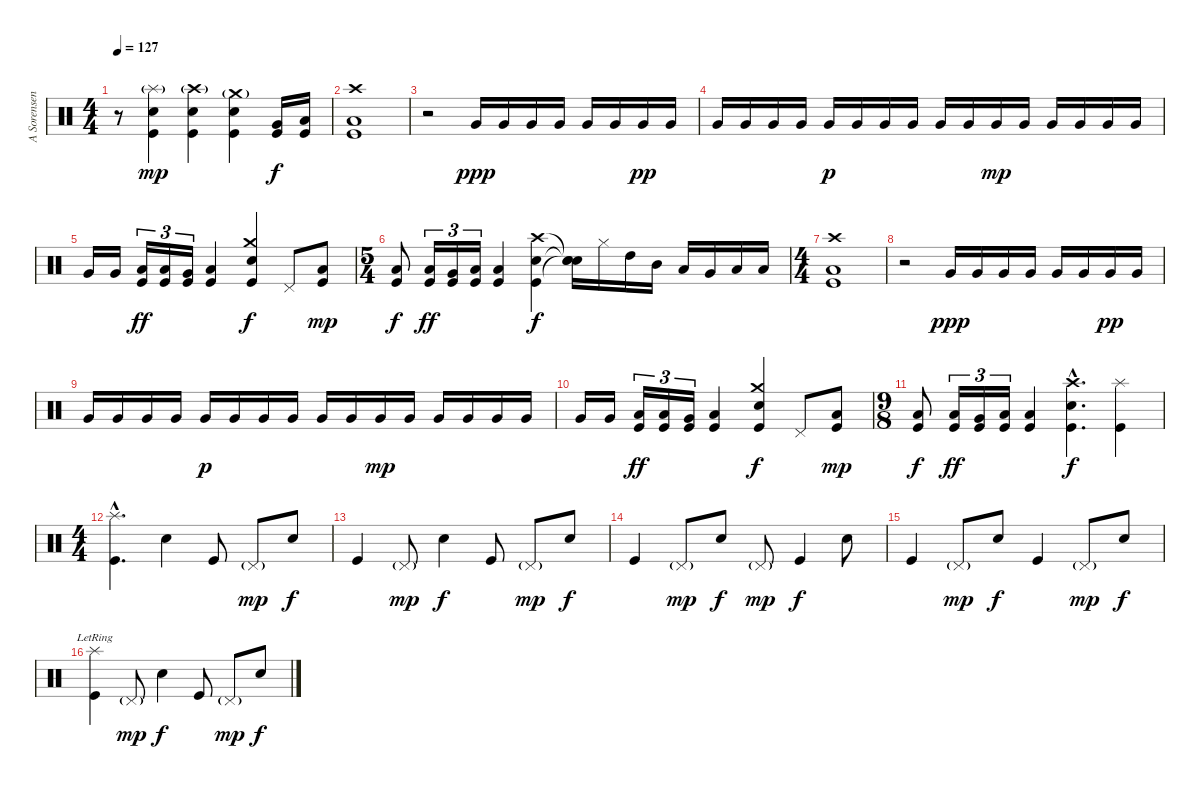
\track ("A Sorensen" "A Sorensen") {instrument percussion}
\staff {score}
\articulation defaults
\ts (4 4)
\tempo 127
\clef neutral
\ks c
r.8{dy f} ("Splash (hit)"{g} "Electric Snare (hit)" "Kick (hit)").4{dy mp} ("Crash high (hit)"{g} "Electric Snare (hit)" "Kick (hit)").4 ("Crash medium (hit)"{g} "Electric Snare (hit)" "Kick (hit)").4 ("Very Low Tom (hit)" "Kick (hit)").16{dy f} ("Low Floor Tom (hit)" "Kick (hit)").16 |
("Crash high (hit)" "Low Floor Tom (hit)" "Kick (hit)").1 |
r.2 "Very Low Tom (hit)".16{dy ppp} "Very Low Tom (hit)".16 "Very Low Tom (hit)".16 "Very Low Tom (hit)".16 "Very Low Tom (hit)".16 "Very Low Tom (hit)".16 "Very Low Tom (hit)".16{dy pp} "Very Low Tom (hit)".16 |
"Very Low Tom (hit)".16 "Very Low Tom (hit)".16 "Very Low Tom (hit)".16 "Very Low Tom (hit)".16 "Very Low Tom (hit)".16{dy p} "Very Low Tom (hit)".16 "Very Low Tom (hit)".16 "Very Low Tom (hit)".16 "Very Low Tom (hit)".16 "Very Low Tom (hit)".16 "Very Low Tom (hit)".16{dy mp} "Very Low Tom (hit)".16 "Very Low Tom (hit)".16 "Very Low Tom (hit)".16 "Very Low Tom (hit)".16 "Very Low Tom (hit)".16 |
"Very Low Tom (hit)".16 "Very Low Tom (hit)".16 ("Low Floor Tom (hit)" "Kick (hit)").16{tu (3 2) dy ff} ("Low Floor Tom (hit)" "Kick (hit)").16{tu (3 2)} ("Very Low Tom (hit)" "Kick (hit)").16{tu (3 2)} ("Low Tom (hit)" "Kick (hit)").4 ("Crash medium (hit)" "Snare (hit) 2" "Kick (hit)").4{dy f} "Pedal Hi-Hat (hit)".8 ("Low Floor Tom (hit)" "Kick (hit)").8{dy mp} |
\ts (5 4)
("Low Floor Tom (hit)" "Kick (hit)").8{dy f} ("Low Tom (hit)" "Kick (hit)").16{tu (3 2) dy ff} ("Very Low Tom (hit)" "Kick (hit)").16{tu (3 2)} ("Low Floor Tom (hit)" "Kick (hit)").16{tu (3 2)} ("Low Floor Tom (hit)" "Kick (hit)").4 ("Crash high (hit)" "Electric Snare (hit)" "Kick (hit)").4{dy f} ("Snare (hit)"{t} "Snare (hit)"{t} "Snare (hit)"{t}).16 "Hi-Hat (closed)".16 "High Tom (hit)".16 "Mid Tom (hit)".16 "Low Tom (hit)".16 "Very Low Tom (hit)".16 "Low Floor Tom (hit)".16 "Low Floor Tom (hit)".16 |
\ts (4 4)
("Crash high (hit)" "Low Floor Tom (hit)" "Kick (hit)").1 |
r.2 "Very Low Tom (hit)".16{dy ppp} "Very Low Tom (hit)".16 "Very Low Tom (hit)".16 "Very Low Tom (hit)".16 "Very Low Tom (hit)".16 "Very Low Tom (hit)".16 "Very Low Tom (hit)".16{dy pp} "Very Low Tom (hit)".16 |
"Very Low Tom (hit)".16 "Very Low Tom (hit)".16 "Very Low Tom (hit)".16 "Very Low Tom (hit)".16 "Very Low Tom (hit)".16{dy p} "Very Low Tom (hit)".16 "Very Low Tom (hit)".16 "Very Low Tom (hit)".16 "Very Low Tom (hit)".16 "Very Low Tom (hit)".16 "Very Low Tom (hit)".16{dy mp} "Very Low Tom (hit)".16 "Very Low Tom (hit)".16 "Very Low Tom (hit)".16 "Very Low Tom (hit)".16 "Very Low Tom (hit)".16 |
"Very Low Tom (hit)".16 "Very Low Tom (hit)".16 ("Low Floor Tom (hit)" "Kick (hit)").16{tu (3 2) dy ff} ("Low Floor Tom (hit)" "Kick (hit)").16{tu (3 2)} ("Very Low Tom (hit)" "Kick (hit)").16{tu (3 2)} ("Low Tom (hit)" "Kick (hit)").4 ("Crash medium (hit)" "Snare (hit) 2" "Kick (hit)").4{dy f} "Pedal Hi-Hat (hit)".8 ("Low Floor Tom (hit)" "Kick (hit)").8{dy mp} |
\ts (9 8)
("Low Floor Tom (hit)" "Kick (hit)").8{dy f} ("Low Tom (hit)" "Kick (hit)").16{tu (3 2) dy ff} ("Very Low Tom (hit)" "Kick (hit)").16{tu (3 2)} ("Low Floor Tom (hit)" "Kick (hit)").16{tu (3 2)} ("Low Floor Tom (hit)" "Kick (hit)").4 ("Crash high (hit)"{hac} "Electric Snare (hit)"{hac} "Kick (hit)"{hac}).4{d dy f} ("Splash (hit)" "Kick (hit)").4 |
\ts (4 4)
("Splash (hit)"{hac} "Kick (hit)"{hac}).4{d} "Electric Snare (hit)".4 "Kick (hit)".8 "Pedal Hi-Hat (hit)"{g}.8{dy mp} "Electric Snare (hit)".8{dy f} |
"Kick (hit)".4 "Pedal Hi-Hat (hit)"{g}.8{dy mp} "Electric Snare (hit)".4{dy f} "Kick (hit)".8 "Pedal Hi-Hat (hit)"{g}.8{dy mp} "Electric Snare (hit)".8{dy f} |
"Kick (hit)".4 "Pedal Hi-Hat (hit)"{g}.8{dy mp} "Electric Snare (hit)".8{dy f} "Pedal Hi-Hat (hit)"{g}.8{dy mp} "Kick (hit)".4{dy f} "Electric Snare (hit)".8 |
"Kick (hit)".4 "Pedal Hi-Hat (hit)"{g}.8{dy mp} "Electric Snare (hit)".8{dy f} "Kick (hit)".4 "Pedal Hi-Hat (hit)"{g}.8{dy mp} "Electric Snare (hit)".8{dy f} |
("Splash (hit)"{lr} "Kick (hit)").4 "Pedal Hi-Hat (hit)"{g}.8{dy mp} "Electric Snare (hit)".4{dy f} "Kick (hit)".8 "Pedal Hi-Hat (hit)"{g}.8{dy mp} "Electric Snare (hit)".8{dy f}
